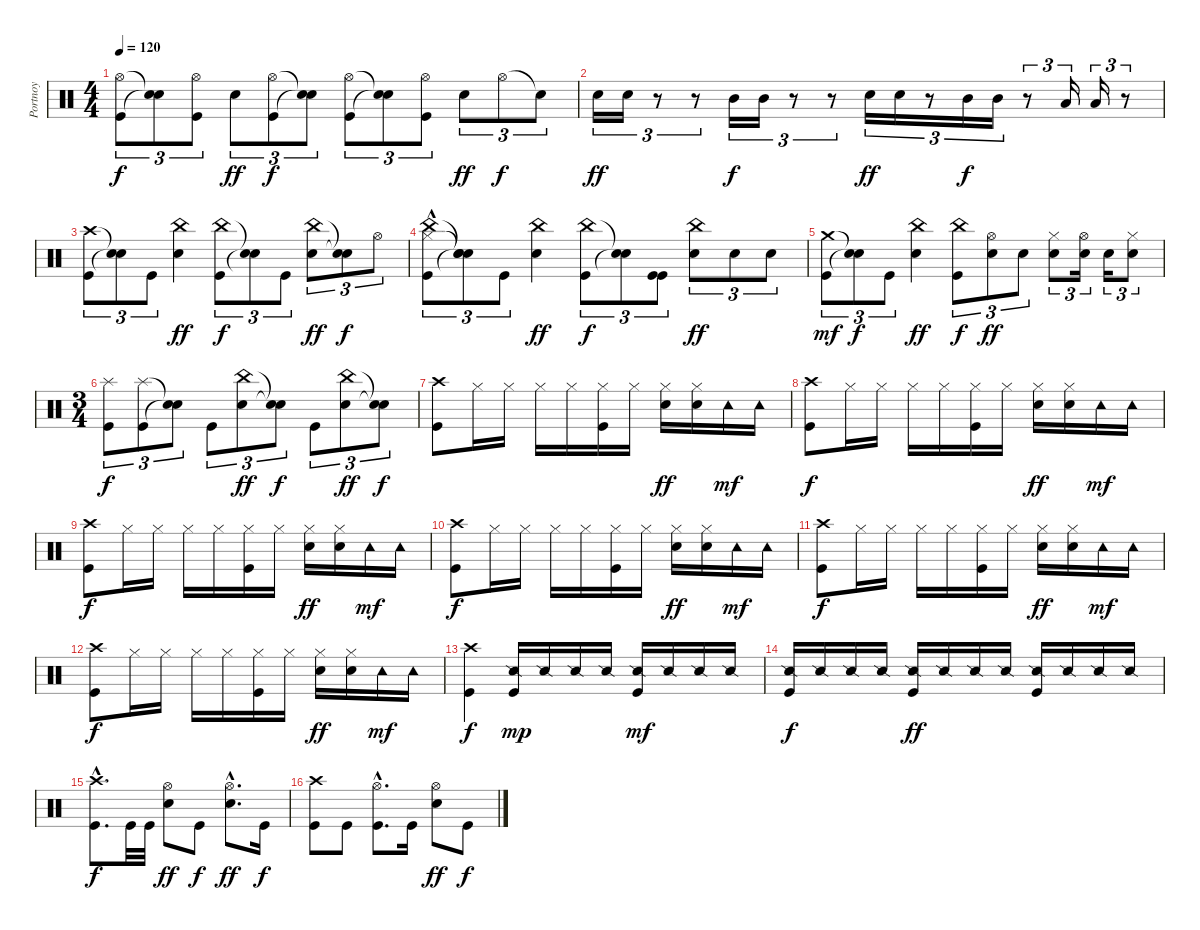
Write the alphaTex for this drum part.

\track ("Portnoy" "Portnoy") {instrument percussion}
\staff {score}
\articulation defaults
\ts (4 4)
\tempo 120
\clef neutral
\ks c
("Hi-Hat (open)" "Kick (hit)").8{tu (3 2) dy f} ("Snare (hit)"{t} "Snare (hit)"{t}).8{tu (3 2)} ("Hi-Hat (open)" "Kick (hit)").8{tu (3 2)} "Electric Snare (hit)".8{tu (3 2) dy ff} ("Hi-Hat (open)" "Kick (hit)").8{tu (3 2) dy f} ("Snare (hit)"{t} "Snare (hit)"{t}).8{tu (3 2)} ("Hi-Hat (open)" "Kick (hit)").8{tu (3 2)} ("Snare (hit)"{t} "Snare (hit)"{t}).8{tu (3 2)} ("Hi-Hat (open)" "Kick (hit)").8{tu (3 2)} "Electric Snare (hit)".8{tu (3 2) dy ff} "Hi-Hat (open)".8{tu (3 2) dy f} "Snare (hit)"{t}.8{tu (3 2)} |
"Electric Snare (hit)".16{tu (3 2) dy ff} "Electric Snare (hit)".16{tu (3 2)} r.8{tu (3 2)} r.8{tu (3 2)} "Mid Tom (hit)".16{tu (3 2) dy f} "Mid Tom (hit)".16{tu (3 2)} r.8{tu (3 2)} r.8{tu (3 2)} "Electric Snare (hit)".16{tu (3 2) dy ff} "Electric Snare (hit)".16{tu (3 2)} r.8{tu (3 2)} "Mid Tom (hit)".16{tu (3 2) dy f} "Mid Tom (hit)".16{tu (3 2)} r.8{tu (3 2)} "Low Tom (hit)".16{tu (3 2)} "Low Tom (hit)".16{tu (3 2)} r.8{tu (3 2)} |
("Crash high (hit)" "Kick (hit)").8{tu (3 2)} ("Snare (hit)"{t} "Snare (hit)"{t}).8{tu (3 2)} "Kick (hit)".8{tu (3 2)} ("China (hit)" "Electric Snare (hit)").4{dy ff} ("China (hit)" "Kick (hit)").8{tu (3 2) dy f} ("Snare (hit)"{t} "Snare (hit)"{t}).8{tu (3 2)} "Kick (hit)".8{tu (3 2)} ("China (hit)" "Electric Snare (hit)").8{tu (3 2) dy ff} ("Snare (hit)"{t} "Snare (hit)"{t}).8{tu (3 2) dy f} "Hi-Hat (open)".8{tu (3 2)} |
("China (hit)" "Hi-Hat (closed)"{hac} "Kick (hit)").8{tu (3 2)} ("Snare (hit)"{t} "Snare (hit)"{t} "Snare (hit)"{t}).8{tu (3 2)} "Kick (hit)".8{tu (3 2)} ("China (hit)" "Electric Snare (hit)").4{dy ff} ("China (hit)" "Kick (hit)").8{tu (3 2) dy f} ("Snare (hit)"{t} "Snare (hit)"{t}).8{tu (3 2)} ("Kick (hit)" "Kick (hit)").8{tu (3 2)} ("China (hit)" "Electric Snare (hit)").8{tu (3 2) dy ff} "Electric Snare (hit)".8{tu (3 2)} "Electric Snare (hit)".8{tu (3 2)} |
("Crash medium (hit)" "Kick (hit)").8{tu (3 2) dy mf} ("Snare (hit)"{t} "Snare (hit)"{t}).8{tu (3 2) dy f} "Kick (hit)".8{tu (3 2)} ("China (hit)" "Electric Snare (hit)").4{dy ff} ("China (hit)" "Kick (hit)").8{tu (3 2) dy f} ("Hi-Hat (open)" "Electric Snare (hit)").8{tu (3 2) dy ff} "Electric Snare (hit)".8{tu (3 2)} ("Hi-Hat (closed)" "Electric Snare (hit)").8{tu (3 2)} ("Hi-Hat (open)" "Electric Snare (hit)").16{tu (3 2)} "Electric Snare (hit)".16{tu (3 2)} ("Hi-Hat (closed)" "Electric Snare (hit)").8{tu (3 2)} |
\ts (3 4)
("Splash (hit)" "Kick (hit)").8{tu (3 2) dy f} ("Splash (hit)" "Kick (hit)").8{tu (3 2)} ("Snare (hit)"{t} "Snare (hit)"{t}).8{tu (3 2)} "Kick (hit)".8{tu (3 2)} ("China (hit)" "Electric Snare (hit)").8{tu (3 2) dy ff} ("Snare (hit)"{t} "Snare (hit)"{t}).8{tu (3 2) dy f} "Kick (hit)".8{tu (3 2)} ("China (hit)" "Electric Snare (hit)").8{tu (3 2) dy ff} ("Snare (hit)"{t} "Snare (hit)"{t}).8{tu (3 2) dy f} |
("Crash high (hit)" "Kick (hit)").8 "Hi-Hat (closed)".16 "Hi-Hat (closed)".16 "Hi-Hat (closed)".16 "Hi-Hat (closed)".16 ("Hi-Hat (closed)" "Kick (hit)").16 "Hi-Hat (closed)".16 ("Hi-Hat (closed)" "Electric Snare (hit)").16{dy ff} ("Hi-Hat (closed)" "Electric Snare (hit)").16 "Tambourine (hit)".16{dy mf} "Tambourine (hit)".16 |
("Crash high (hit)" "Kick (hit)").8{dy f} "Hi-Hat (closed)".16 "Hi-Hat (closed)".16 "Hi-Hat (closed)".16 "Hi-Hat (closed)".16 ("Hi-Hat (closed)" "Kick (hit)").16 "Hi-Hat (closed)".16 ("Hi-Hat (closed)" "Electric Snare (hit)").16{dy ff} ("Hi-Hat (closed)" "Electric Snare (hit)").16 "Tambourine (hit)".16{dy mf} "Tambourine (hit)".16 |
("Crash high (hit)" "Kick (hit)").8{dy f} "Hi-Hat (closed)".16 "Hi-Hat (closed)".16 "Hi-Hat (closed)".16 "Hi-Hat (closed)".16 ("Hi-Hat (closed)" "Kick (hit)").16 "Hi-Hat (closed)".16 ("Hi-Hat (closed)" "Electric Snare (hit)").16{dy ff} ("Hi-Hat (closed)" "Electric Snare (hit)").16 "Tambourine (hit)".16{dy mf} "Tambourine (hit)".16 |
("Crash high (hit)" "Kick (hit)").8{dy f} "Hi-Hat (closed)".16 "Hi-Hat (closed)".16 "Hi-Hat (closed)".16 "Hi-Hat (closed)".16 ("Hi-Hat (closed)" "Kick (hit)").16 "Hi-Hat (closed)".16 ("Hi-Hat (closed)" "Electric Snare (hit)").16{dy ff} ("Hi-Hat (closed)" "Electric Snare (hit)").16 "Tambourine (hit)".16{dy mf} "Tambourine (hit)".16 |
("Crash high (hit)" "Kick (hit)").8{dy f} "Hi-Hat (closed)".16 "Hi-Hat (closed)".16 "Hi-Hat (closed)".16 "Hi-Hat (closed)".16 ("Hi-Hat (closed)" "Kick (hit)").16 "Hi-Hat (closed)".16 ("Hi-Hat (closed)" "Electric Snare (hit)").16{dy ff} ("Hi-Hat (closed)" "Electric Snare (hit)").16 "Tambourine (hit)".16{dy mf} "Tambourine (hit)".16 |
("Crash high (hit)" "Kick (hit)").8{dy f} "Hi-Hat (closed)".16 "Hi-Hat (closed)".16 "Hi-Hat (closed)".16 "Hi-Hat (closed)".16 ("Hi-Hat (closed)" "Kick (hit)").16 "Hi-Hat (closed)".16 ("Hi-Hat (closed)" "Electric Snare (hit)").16{dy ff} ("Hi-Hat (closed)" "Electric Snare (hit)").16 "Tambourine (hit)".16{dy mf} "Tambourine (hit)".16 |
("Crash high (hit)" "Kick (hit)").4{dy f} ("Snare (side stick) 2" "Kick (hit)").16{dy mp} "Snare (side stick) 2".16 "Snare (side stick) 2".16 "Snare (side stick) 2".16 ("Snare (side stick) 2" "Kick (hit)").16{dy mf} "Snare (side stick) 2".16 "Snare (side stick) 2".16 "Snare (side stick) 2".16 |
("Snare (side stick) 2" "Kick (hit)").16{dy f} "Snare (side stick) 2".16 "Snare (side stick) 2".16 "Snare (side stick) 2".16 ("Snare (side stick) 2" "Kick (hit)").16{dy ff} "Snare (side stick) 2".16 "Snare (side stick) 2".16 "Snare (side stick) 2".16 ("Snare (side stick) 2" "Kick (hit)").16 "Snare (side stick) 2".16 "Snare (side stick) 2".16 "Snare (side stick) 2".16 |
("Crash high (hit)"{hac} "Kick (hit)"{hac}).8{d dy f} "Kick (hit)".32 "Kick (hit)".32 ("Hi-Hat (open)" "Electric Snare (hit)").8{dy ff} "Kick (hit)".8{dy f} ("Hi-Hat (open)"{hac} "Electric Snare (hit)"{hac}).8{d dy ff} "Kick (hit)".16{dy f} |
("Crash high (hit)" "Kick (hit)").8 "Kick (hit)".8 ("Hi-Hat (open)"{hac} "Kick (hit)"{hac}).8{d} "Kick (hit)".16 ("Hi-Hat (open)" "Electric Snare (hit)").8{dy ff} "Kick (hit)".8{dy f}
